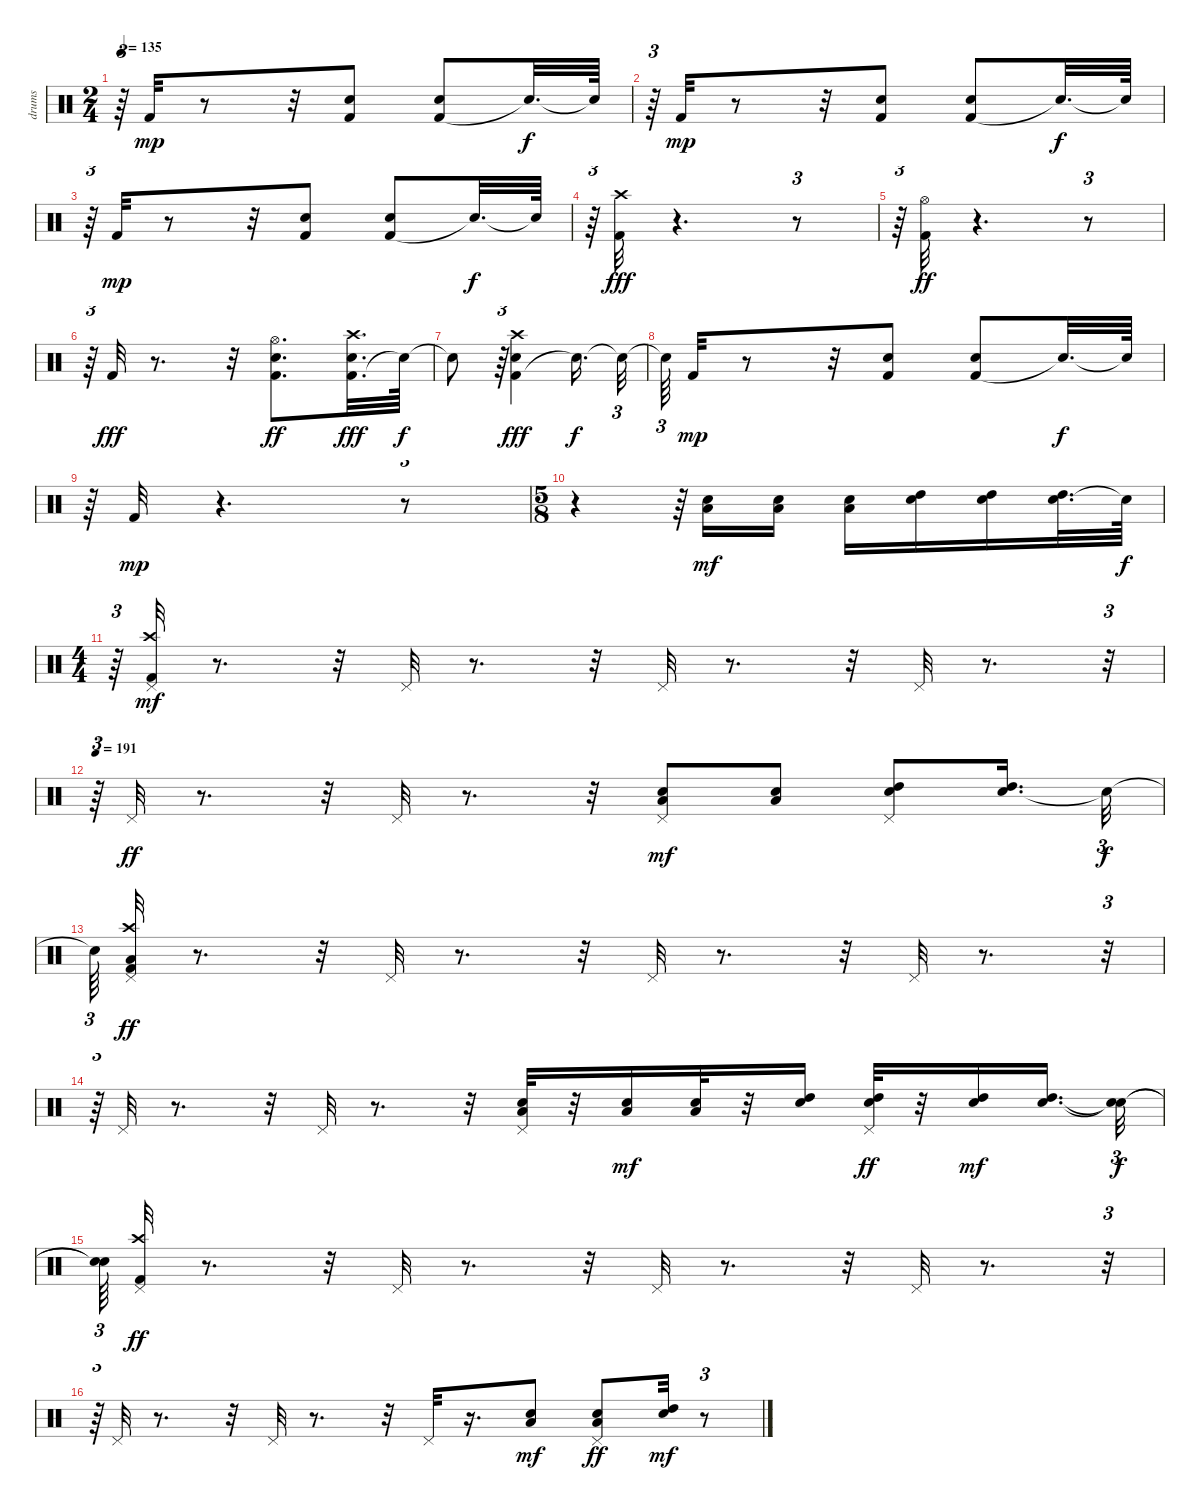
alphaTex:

\track ("drums               " "drums     ") {instrument percussion}
\staff {score}
\articulation defaults
\ts (2 4)
\tempo 135
\clef neutral
\ks c
r.64{tu (3 2) dy f} "Kick (hit) 2".32{dy mp} r.8 r.32 ("Kick (hit) 2" "Snare (hit) 2").8 ("Kick (hit) 2" "Snare (hit) 2").8 "Snare (hit)"{t}.32{d dy f} "Snare (hit)"{t}.64 |
r.64{tu (3 2)} "Kick (hit) 2".32{dy mp} r.8 r.32 ("Kick (hit) 2" "Snare (hit) 2").8 ("Kick (hit) 2" "Snare (hit) 2").8 "Snare (hit)"{t}.32{d dy f} "Snare (hit)"{t}.64 |
r.64{tu (3 2)} "Kick (hit) 2".32{dy mp} r.8 r.32 ("Kick (hit) 2" "Snare (hit) 2").8 ("Kick (hit) 2" "Snare (hit) 2").8 "Snare (hit)"{t}.32{d dy f} "Snare (hit)"{t}.64 |
r.64{tu (3 2)} ("Kick (hit) 2" "Crash high (hit)").32{dy fff} r.4{d} r.8{tu (3 2)} |
r.64{tu (3 2)} ("Kick (hit) 2" "Hi-Hat (open)").32{dy ff} r.4{d} r.8{tu (3 2)} |
r.64{tu (3 2)} "Kick (hit) 2".32{dy fff} r.8{d} r.32 ("Kick (hit) 2" "Snare (hit) 2" "Hi-Hat (open)").8{d dy ff} ("Kick (hit) 2" "Snare (hit) 2" "Crash high (hit)").32{d dy fff} "Snare (hit)"{t}.64{dy f} |
"Snare (hit)"{t}.8 r.64{tu (3 2)} ("Kick (hit) 2" "Snare (hit) 2" "Crash high (hit)").4{dy fff} "Snare (hit)"{t}.16{d dy f} "Snare (hit)"{t}.32{tu (3 2)} |
"Snare (hit)"{t}.64{tu (3 2)} "Kick (hit) 2".32{dy mp} r.8 r.32 ("Kick (hit) 2" "Snare (hit) 2").8 ("Kick (hit) 2" "Snare (hit) 2").8 "Snare (hit)"{t}.32{d dy f} "Snare (hit)"{t}.64 |
r.64{tu (3 2)} "Kick (hit) 2".32{dy mp} r.4{d} r.8{tu (3 2)} |
\ts (5 8)
r.4 r.64{tu (3 2)} ("Snare (hit) 2" "Low Tom (hit)").16{dy mf} ("Snare (hit) 2" "Low Floor Tom (hit)").16 ("Snare (hit) 2" "Low Floor Tom (hit)").16 ("Snare (hit) 2" "High Tom (hit)").16 ("Snare (hit) 2" "High Tom (hit)").16 ("Snare (hit) 2" "High Tom (hit)").32{d} "Snare (hit)"{t}.64{dy f} |
\ts (4 4)
r.64{tu (3 2)} ("Kick (hit) 2" "Crash high (hit)" "Pedal Hi-Hat (hit)").32{dy mf volume 12} r.8{d} r.32 "Pedal Hi-Hat (hit)".32{volume 10} r.8{d} r.32 "Pedal Hi-Hat (hit)".32 r.8{d} r.32 "Pedal Hi-Hat (hit)".32 r.8{d} r.32{tu (3 2)} |
\tempo 191
r.64{tu (3 2)} "Pedal Hi-Hat (hit)".32{dy ff} r.8{d} r.32 "Pedal Hi-Hat (hit)".32 r.8{d} r.32 ("Snare (hit) 2" "Pedal Hi-Hat (hit)" "Low Tom (hit)").8{dy mf} ("Snare (hit) 2" "Low Floor Tom (hit)").8 ("Snare (hit) 2" "Pedal Hi-Hat (hit)" "High Tom (hit)").8 ("Snare (hit) 2" "High Tom (hit)").16{d} "Snare (hit)"{t}.32{tu (3 2) dy f} |
"Snare (hit)"{t}.64{tu (3 2)} ("Kick (hit) 2" "Crash high (hit)" "Low Floor Tom (hit)" "Pedal Hi-Hat (hit)").32{dy ff} r.8{d} r.32 "Pedal Hi-Hat (hit)".32 r.8{d} r.32 "Pedal Hi-Hat (hit)".32 r.8{d} r.32 "Pedal Hi-Hat (hit)".32 r.8{d} r.32{tu (3 2)} |
r.64{tu (3 2)} "Pedal Hi-Hat (hit)".32 r.8{d} r.32 "Pedal Hi-Hat (hit)".32 r.8{d} r.32 ("Snare (hit) 2" "Low Tom (hit)" "Pedal Hi-Hat (hit)").32 r.32 ("Snare (hit) 2" "Low Floor Tom (hit)").16{dy mf} ("Snare (hit) 2" "Low Floor Tom (hit)").32 r.32 ("Snare (hit) 2" "High Tom (hit)").16 ("Snare (hit) 2" "High Tom (hit)" "Pedal Hi-Hat (hit)").32{dy ff} r.32 ("Snare (hit) 2" "High Tom (hit)").16{dy mf} ("Snare (hit) 2" "High Tom (hit)").16{d} ("Snare (hit)"{t} "Snare (hit)"{t}).32{tu (3 2) dy f} |
("Snare (hit)"{t} "Snare (hit)"{t}).64{tu (3 2)} ("Kick (hit) 2" "Crash high (hit)" "Pedal Hi-Hat (hit)").32{dy ff} r.8{d} r.32 "Pedal Hi-Hat (hit)".32 r.8{d} r.32 "Pedal Hi-Hat (hit)".32 r.8{d} r.32 "Pedal Hi-Hat (hit)".32 r.8{d} r.32{tu (3 2)} |
r.64{tu (3 2)} "Pedal Hi-Hat (hit)".32 r.8{d} r.32 "Pedal Hi-Hat (hit)".32 r.8{d} r.32 "Pedal Hi-Hat (hit)".32 r.16{d} ("Snare (hit) 2" "Low Tom (hit)").8{dy mf} ("Snare (hit) 2" "Low Floor Tom (hit)" "Pedal Hi-Hat (hit)").8{dy ff} ("Snare (hit) 2" "High Tom (hit)").32{dy mf} r.8{tu (3 2)}
